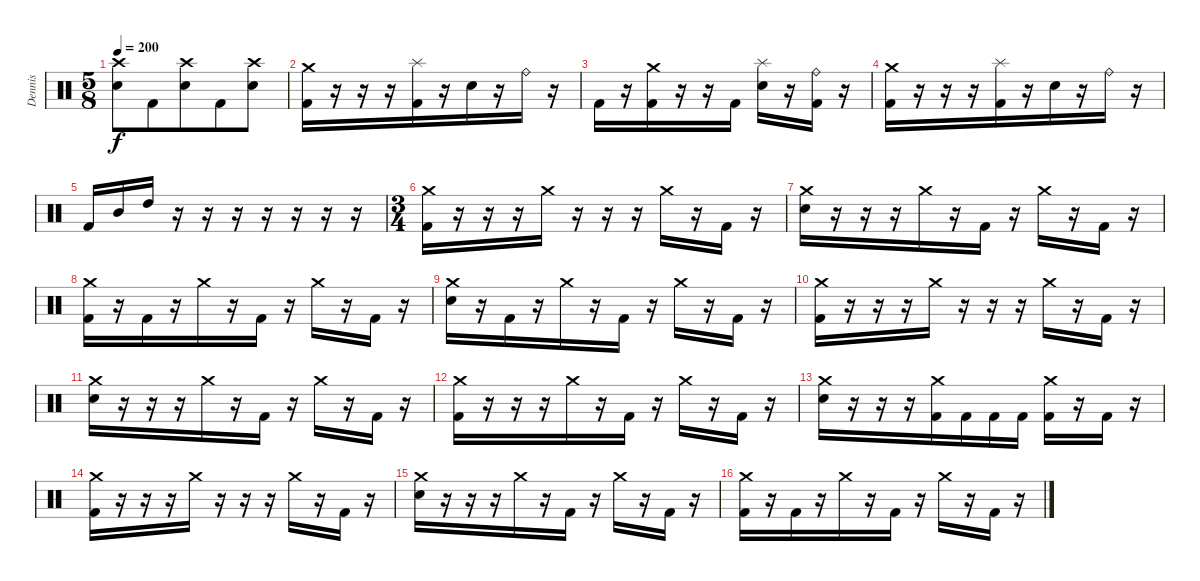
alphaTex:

\track ("Dennis" "Dennis") {instrument percussion}
\staff {score}
\articulation defaults
\ts (5 8)
\tempo 200
\clef neutral
\ks c
("Crash high (hit)" "Electric Snare (hit)").8{dy f beam merge} "Kick (hit) 2".8{beam merge} ("Crash high (hit)" "Electric Snare (hit)").8{beam merge} "Kick (hit) 2".8 ("Crash high (hit)" "Electric Snare (hit)").8 |
("Crash medium (hit)" "Kick (hit) 2").16{beam merge} r.16 r.16{beam merge} r.16{beam merge} ("Splash (hit)" "Kick (hit) 2").16{beam merge} r.16{beam merge} "Electric Snare (hit)".16 r.16 "Ride (bell)".16 r.16 |
"Kick (hit) 2".16{beam merge} r.16 ("Crash medium (hit)" "Kick (hit) 2").16 r.16{beam merge} r.16 "Kick (hit) 2".16 ("Splash (hit)" "Electric Snare (hit)").16 r.16 ("Ride (bell)" "Kick (hit) 2").16{beam merge} r.16 |
("Crash medium (hit)" "Kick (hit) 2").16{beam merge} r.16 r.16{beam merge} r.16{beam merge} ("Splash (hit)" "Kick (hit) 2").16{beam merge} r.16{beam merge} "Electric Snare (hit)".16 r.16 "Ride (bell)".16 r.16 |
"Kick (hit) 2".16{beam merge} "Mid Tom (hit)".16 "High Tom (hit)".16 r.16{beam merge} r.16 r.16 r.16 r.16{beam merge} r.16{beam merge} r.16 |
\ts (3 4)
("Crash medium (hit)" "Kick (hit) 2").16{beam merge} r.16 r.16{beam merge} r.16 "Crash medium (hit)".16 r.16 r.16 r.16 "Crash medium (hit)".16{beam merge} r.16 "Kick (hit) 2".16 r.16 |
("Crash medium (hit)" "Electric Snare (hit)").16{beam merge} r.16 r.16{beam merge} r.16 "Crash medium (hit)".16 r.16 "Kick (hit) 2".16 r.16 "Crash medium (hit)".16{beam merge} r.16 "Kick (hit) 2".16 r.16 |
("Crash medium (hit)" "Kick (hit) 2").16{beam merge} r.16 "Kick (hit) 2".16{beam merge} r.16 "Crash medium (hit)".16 r.16 "Kick (hit) 2".16 r.16 "Crash medium (hit)".16{beam merge} r.16 "Kick (hit) 2".16 r.16 |
("Crash medium (hit)" "Electric Snare (hit)").16{beam merge} r.16 "Kick (hit) 2".16{beam merge} r.16 "Crash medium (hit)".16 r.16 "Kick (hit) 2".16 r.16 "Crash medium (hit)".16{beam merge} r.16 "Kick (hit) 2".16 r.16 |
("Crash medium (hit)" "Kick (hit) 2").16{beam merge} r.16 r.16{beam merge} r.16 "Crash medium (hit)".16 r.16 r.16 r.16 "Crash medium (hit)".16{beam merge} r.16 "Kick (hit) 2".16 r.16 |
("Crash medium (hit)" "Electric Snare (hit)").16{beam merge} r.16 r.16{beam merge} r.16 "Crash medium (hit)".16 r.16 "Kick (hit) 2".16 r.16 "Crash medium (hit)".16{beam merge} r.16 "Kick (hit) 2".16 r.16 |
("Crash medium (hit)" "Kick (hit) 2").16{beam merge} r.16 r.16{beam merge} r.16 "Crash medium (hit)".16 r.16 "Kick (hit) 2".16 r.16 "Crash medium (hit)".16{beam merge} r.16 "Kick (hit) 2".16 r.16 |
("Crash medium (hit)" "Electric Snare (hit)").16{beam merge} r.16 r.16{beam merge} r.16 ("Crash medium (hit)" "Kick (hit) 2").16 "Kick (hit) 2".16 "Kick (hit) 2".16 "Kick (hit) 2".16 ("Crash medium (hit)" "Kick (hit) 2").16{beam merge} r.16{beam merge} "Kick (hit) 2".16{beam merge} r.16 |
("Crash medium (hit)" "Kick (hit) 2").16{beam merge} r.16 r.16{beam merge} r.16 "Crash medium (hit)".16 r.16 r.16 r.16 "Crash medium (hit)".16{beam merge} r.16 "Kick (hit) 2".16 r.16 |
("Crash medium (hit)" "Electric Snare (hit)").16{beam merge} r.16 r.16{beam merge} r.16 "Crash medium (hit)".16 r.16 "Kick (hit) 2".16 r.16 "Crash medium (hit)".16{beam merge} r.16 "Kick (hit) 2".16 r.16 |
("Crash medium (hit)" "Kick (hit) 2").16{beam merge} r.16 "Kick (hit) 2".16{beam merge} r.16 "Crash medium (hit)".16 r.16 "Kick (hit) 2".16 r.16 "Crash medium (hit)".16{beam merge} r.16 "Kick (hit) 2".16 r.16
